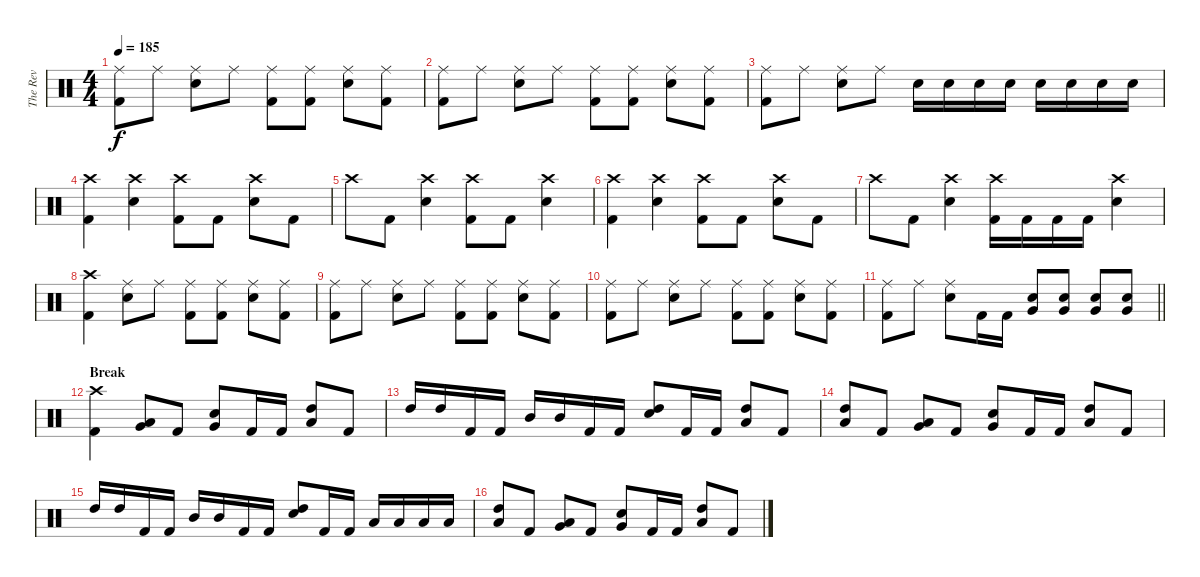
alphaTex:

\track ("The Rev" "The Rev") {instrument percussion}
\staff {score}
\articulation defaults
\ts (4 4)
\tempo 185
\clef neutral
\ks c
("Ride (middle)" "Kick (hit) 2").8{dy f} "Ride (middle)".8 ("Ride (middle)" "Electric Snare (hit)").8 "Ride (middle)".8 ("Ride (middle)" "Kick (hit) 2").8 ("Ride (middle)" "Kick (hit) 2").8 ("Ride (middle)" "Electric Snare (hit)").8 ("Ride (middle)" "Kick (hit) 2").8 |
("Ride (middle)" "Kick (hit) 2").8 "Ride (middle)".8 ("Ride (middle)" "Electric Snare (hit)").8 "Ride (middle)".8 ("Ride (middle)" "Kick (hit) 2").8 ("Ride (middle)" "Kick (hit) 2").8 ("Ride (middle)" "Electric Snare (hit)").8 ("Ride (middle)" "Kick (hit) 2").8 |
("Ride (middle)" "Kick (hit) 2").8 "Ride (middle)".8 ("Ride (middle)" "Electric Snare (hit)").8 "Ride (middle)".8 "Electric Snare (hit)".16 "Electric Snare (hit)".16 "Electric Snare (hit)".16 "Electric Snare (hit)".16 "Electric Snare (hit)".16 "Electric Snare (hit)".16 "Electric Snare (hit)".16 "Electric Snare (hit)".16 |
("Crash high (hit)" "Kick (hit) 2").4 ("Crash high (hit)" "Electric Snare (hit)").4 ("Crash high (hit)" "Kick (hit) 2").8 "Kick (hit) 2".8 ("Crash high (hit)" "Electric Snare (hit)").8 "Kick (hit) 2".8 |
"Crash high (hit)".8 "Kick (hit) 2".8 ("Crash high (hit)" "Electric Snare (hit)").4 ("Crash high (hit)" "Kick (hit) 2").8 "Kick (hit) 2".8 ("Crash high (hit)" "Electric Snare (hit)").4 |
("Crash high (hit)" "Kick (hit) 2").4 ("Crash high (hit)" "Electric Snare (hit)").4 ("Crash high (hit)" "Kick (hit) 2").8 "Kick (hit) 2".8 ("Crash high (hit)" "Electric Snare (hit)").8 "Kick (hit) 2".8 |
"Crash high (hit)".8 "Kick (hit) 2".8 ("Crash high (hit)" "Electric Snare (hit)").4 ("Crash high (hit)" "Kick (hit) 2").16 "Kick (hit) 2".16 "Kick (hit) 2".16 "Kick (hit) 2".16 ("Crash high (hit)" "Electric Snare (hit)").4 |
("Crash high (hit)" "Kick (hit) 2").4 ("Ride (middle)" "Electric Snare (hit)").8 "Ride (middle)".8 ("Ride (middle)" "Kick (hit) 2").8 ("Ride (middle)" "Kick (hit) 2").8 ("Ride (middle)" "Electric Snare (hit)").8 ("Ride (middle)" "Kick (hit) 2").8 |
("Ride (middle)" "Kick (hit) 2").8 "Ride (middle)".8 ("Ride (middle)" "Electric Snare (hit)").8 "Ride (middle)".8 ("Ride (middle)" "Kick (hit) 2").8 ("Ride (middle)" "Kick (hit) 2").8 ("Ride (middle)" "Electric Snare (hit)").8 ("Ride (middle)" "Kick (hit) 2").8 |
("Ride (middle)" "Kick (hit) 2").8 "Ride (middle)".8 ("Ride (middle)" "Electric Snare (hit)").8 "Ride (middle)".8 ("Ride (middle)" "Kick (hit) 2").8 ("Ride (middle)" "Kick (hit) 2").8 ("Ride (middle)" "Electric Snare (hit)").8 ("Ride (middle)" "Kick (hit) 2").8 |
\barLineRight lightlight
("Ride (middle)" "Kick (hit) 2").8 "Ride (middle)".8 ("Ride (middle)" "Electric Snare (hit)").8 "Kick (hit) 2".16 "Kick (hit) 2".16 ("Very Low Tom (hit)" "Electric Snare (hit)").8 ("Very Low Tom (hit)" "Electric Snare (hit)").8 ("Very Low Tom (hit)" "Electric Snare (hit)").8 ("Very Low Tom (hit)" "Electric Snare (hit)").8 |
\section ("" "Break")
("Crash high (hit)" "Kick (hit) 2").4 ("Low Tom (hit)" "Very Low Tom (hit)").8 "Kick (hit) 2".8 ("Very Low Tom (hit)" "Electric Snare (hit)").8 "Kick (hit) 2".16 "Kick (hit) 2".16 ("High Tom (hit)" "Low Tom (hit)").8 "Kick (hit) 2".8 |
"High Tom (hit)".16 "High Tom (hit)".16 "Kick (hit) 2".16 "Kick (hit) 2".16 "Mid Tom (hit)".16 "Mid Tom (hit)".16 "Kick (hit) 2".16 "Kick (hit) 2".16 ("High Tom (hit)" "Electric Snare (hit)").8 "Kick (hit) 2".16 "Kick (hit) 2".16 ("High Tom (hit)" "Low Tom (hit)").8 "Kick (hit) 2".8 |
("High Tom (hit)" "Low Tom (hit)").8 "Kick (hit) 2".8 ("Low Tom (hit)" "Very Low Tom (hit)").8 "Kick (hit) 2".8 ("Very Low Tom (hit)" "Electric Snare (hit)").8 "Kick (hit) 2".16 "Kick (hit) 2".16 ("High Tom (hit)" "Low Tom (hit)").8 "Kick (hit) 2".8 |
"High Tom (hit)".16 "High Tom (hit)".16 "Kick (hit) 2".16 "Kick (hit) 2".16 "Mid Tom (hit)".16 "Mid Tom (hit)".16 "Kick (hit) 2".16 "Kick (hit) 2".16 ("High Tom (hit)" "Electric Snare (hit)").8 "Kick (hit) 2".16 "Kick (hit) 2".16 "Low Tom (hit)".16 "Low Tom (hit)".16 "Low Tom (hit)".16 "Low Tom (hit)".16 |
("High Tom (hit)" "Low Tom (hit)").8 "Kick (hit) 2".8 ("Low Tom (hit)" "Very Low Tom (hit)").8 "Kick (hit) 2".8 ("Very Low Tom (hit)" "Electric Snare (hit)").8 "Kick (hit) 2".16 "Kick (hit) 2".16 ("High Tom (hit)" "Low Tom (hit)").8 "Kick (hit) 2".8
